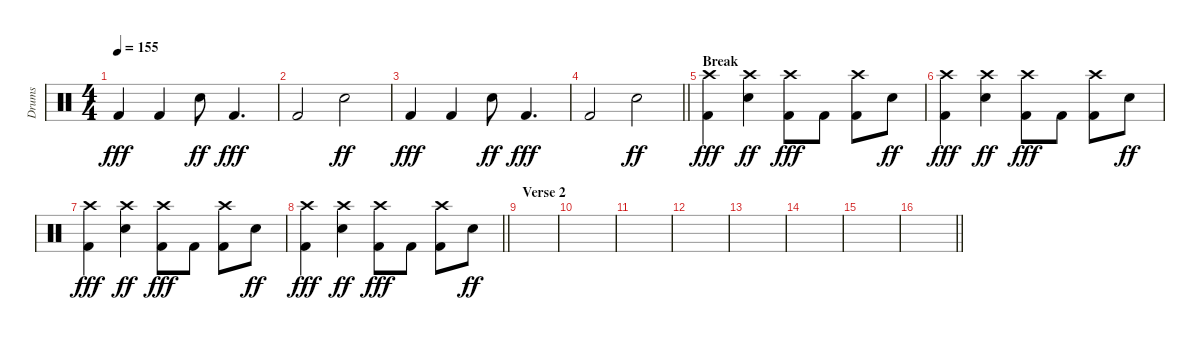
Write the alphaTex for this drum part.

\track ("Drums" "Drums") {instrument percussion}
\staff {score}
\articulation defaults
\ts (4 4)
\tempo 155
\clef neutral
\ks c "Kick (hit) 2".4{dy fff} "Kick (hit) 2".4 "Snare (hit) 2".8{dy ff} "Kick (hit) 2".4{d dy fff}
|
"Kick (hit) 2".2 "Snare (hit) 2".2{dy ff} |
"Kick (hit) 2".4{dy fff} "Kick (hit) 2".4 "Snare (hit) 2".8{dy ff} "Kick (hit) 2".4{d dy fff} |
\barLineRight lightlight "Kick (hit) 2".2 "Snare (hit) 2".2{dy ff}
|
\section ("" "Break")
("Crash high (hit)" "Kick (hit) 2").4{dy fff} ("Crash high (hit)" "Snare (hit) 2").4{dy ff} ("Crash high (hit)" "Kick (hit) 2").8{dy fff} "Kick (hit) 2".8 ("Crash high (hit)" "Kick (hit) 2").8 "Snare (hit) 2".8{dy ff} |
("Crash high (hit)" "Kick (hit) 2").4{dy fff} ("Crash high (hit)" "Snare (hit) 2").4{dy ff} ("Crash high (hit)" "Kick (hit) 2").8{dy fff} "Kick (hit) 2".8 ("Crash high (hit)" "Kick (hit) 2").8 "Snare (hit) 2".8{dy ff} |
("Crash high (hit)" "Kick (hit) 2").4{dy fff} ("Crash high (hit)" "Snare (hit) 2").4{dy ff} ("Crash high (hit)" "Kick (hit) 2").8{dy fff} "Kick (hit) 2".8 ("Crash high (hit)" "Kick (hit) 2").8 "Snare (hit) 2".8{dy ff} |
\barLineRight lightlight
("Crash high (hit)" "Kick (hit) 2").4{dy fff} ("Crash high (hit)" "Snare (hit) 2").4{dy ff} ("Crash high (hit)" "Kick (hit) 2").8{dy fff} "Kick (hit) 2".8 ("Crash high (hit)" "Kick (hit) 2").8 "Snare (hit) 2".8{dy ff} |
\section ("" "Verse 2")
|
|
|
|
|
|
|
\barLineRight lightlight
